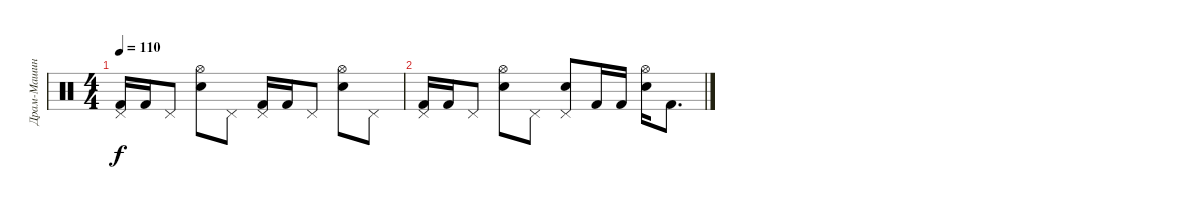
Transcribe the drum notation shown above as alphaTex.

\track ("Драм-Машина" "Драм-Машин") {instrument percussion}
\staff {score}
\articulation defaults
\ts (4 4)
\tempo 110
\clef neutral
\ks c
("Pedal Hi-Hat (hit)" "Kick (hit) 2").16{dy f} "Kick (hit) 2".16 "Pedal Hi-Hat (hit)".8 ("Hi-Hat (open)" "Electric Snare (hit)").8 "Pedal Hi-Hat (hit)".8 ("Pedal Hi-Hat (hit)" "Kick (hit) 2").16 "Kick (hit) 2".16 "Pedal Hi-Hat (hit)".8 ("Hi-Hat (open)" "Electric Snare (hit)").8 "Pedal Hi-Hat (hit)".8 |
("Pedal Hi-Hat (hit)" "Kick (hit) 2").16 "Kick (hit) 2".16 "Pedal Hi-Hat (hit)".8 ("Hi-Hat (open)" "Electric Snare (hit)").8 "Pedal Hi-Hat (hit)".8 ("Pedal Hi-Hat (hit)" "Electric Snare (hit)").8 "Kick (hit) 2".16 "Kick (hit) 2".16 ("Hi-Hat (open)" "Electric Snare (hit)").16 "Kick (hit) 2".8{d}
